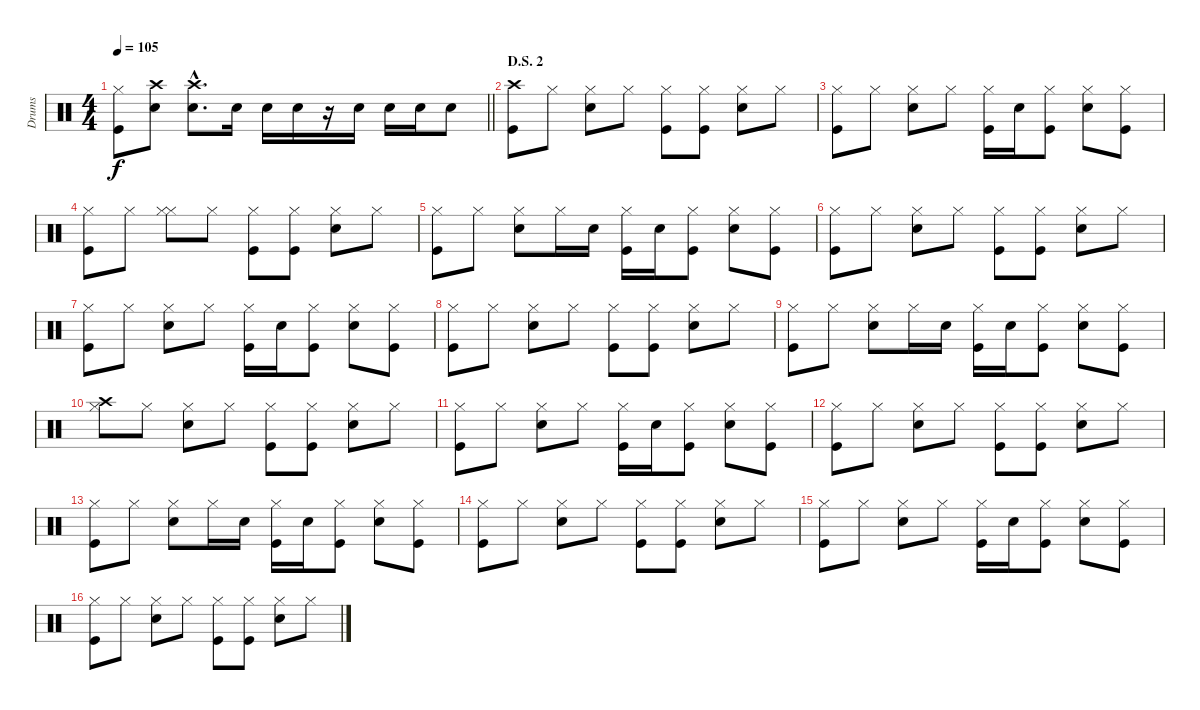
\track ("Drums" "Drums") {instrument percussion}
\staff {score}
\articulation defaults
\ts (4 4)
\tempo 105
\clef neutral
\barLineRight lightlight
\ks c
("Hi-Hat (closed)" "Kick (hit)").8{dy f} ("Crash high (hit)" "Electric Snare (hit)").8 ("Crash high (hit)"{hac} "Electric Snare (hit)"{hac}).8{d} "Electric Snare (hit)".16 "Electric Snare (hit)".16 "Electric Snare (hit)".16 r.16 "Electric Snare (hit)".16 "Electric Snare (hit)".16 "Electric Snare (hit)".16 "Electric Snare (hit)".8 |
\section ("" "D.S. 2")
("Crash high (hit)" "Kick (hit)").8 "Hi-Hat (closed)".8 ("Hi-Hat (closed)" "Electric Snare (hit)").8 "Hi-Hat (closed)".8 ("Hi-Hat (closed)" "Kick (hit)").8 ("Hi-Hat (closed)" "Kick (hit)").8 ("Hi-Hat (closed)" "Electric Snare (hit)").8 "Hi-Hat (closed)".8 |
("Hi-Hat (closed)" "Kick (hit)").8 "Hi-Hat (closed)".8 ("Hi-Hat (closed)" "Electric Snare (hit)").8 "Hi-Hat (closed)".8 ("Hi-Hat (closed)" "Kick (hit)").16 "Electric Snare (hit)".16 ("Hi-Hat (closed)" "Kick (hit)").8 ("Hi-Hat (closed)" "Electric Snare (hit)").8 ("Hi-Hat (closed)" "Kick (hit)").8 |
("Hi-Hat (closed)" "Kick (hit)").8 "Hi-Hat (closed)".8 ("Hi-Hat (closed)" "Hi-Hat (closed)").8 "Hi-Hat (closed)".8 ("Hi-Hat (closed)" "Kick (hit)").8 ("Hi-Hat (closed)" "Kick (hit)").8 ("Hi-Hat (closed)" "Electric Snare (hit)").8 "Hi-Hat (closed)".8 |
("Hi-Hat (closed)" "Kick (hit)").8 "Hi-Hat (closed)".8 ("Hi-Hat (closed)" "Electric Snare (hit)").8 "Hi-Hat (closed)".16 "Electric Snare (hit)".16 ("Hi-Hat (closed)" "Kick (hit)").16 "Electric Snare (hit)".16 ("Hi-Hat (closed)" "Kick (hit)").8 ("Hi-Hat (closed)" "Electric Snare (hit)").8 ("Hi-Hat (closed)" "Kick (hit)").8 |
("Hi-Hat (closed)" "Kick (hit)").8 "Hi-Hat (closed)".8 ("Hi-Hat (closed)" "Electric Snare (hit)").8 "Hi-Hat (closed)".8 ("Hi-Hat (closed)" "Kick (hit)").8 ("Hi-Hat (closed)" "Kick (hit)").8 ("Hi-Hat (closed)" "Electric Snare (hit)").8 "Hi-Hat (closed)".8 |
("Hi-Hat (closed)" "Kick (hit)").8 "Hi-Hat (closed)".8 ("Hi-Hat (closed)" "Electric Snare (hit)").8 "Hi-Hat (closed)".8 ("Hi-Hat (closed)" "Kick (hit)").16 "Electric Snare (hit)".16 ("Hi-Hat (closed)" "Kick (hit)").8 ("Hi-Hat (closed)" "Electric Snare (hit)").8 ("Hi-Hat (closed)" "Kick (hit)").8 |
("Hi-Hat (closed)" "Kick (hit)").8 "Hi-Hat (closed)".8 ("Hi-Hat (closed)" "Electric Snare (hit)").8 "Hi-Hat (closed)".8 ("Hi-Hat (closed)" "Kick (hit)").8 ("Hi-Hat (closed)" "Kick (hit)").8 ("Hi-Hat (closed)" "Electric Snare (hit)").8 "Hi-Hat (closed)".8 |
("Hi-Hat (closed)" "Kick (hit)").8 "Hi-Hat (closed)".8 ("Hi-Hat (closed)" "Electric Snare (hit)").8 "Hi-Hat (closed)".16 "Electric Snare (hit)".16 ("Hi-Hat (closed)" "Kick (hit)").16 "Electric Snare (hit)".16 ("Hi-Hat (closed)" "Kick (hit)").8 ("Hi-Hat (closed)" "Electric Snare (hit)").8 ("Hi-Hat (closed)" "Kick (hit)").8 |
("Crash high (hit)" "Hi-Hat (closed)").8 "Hi-Hat (closed)".8 ("Hi-Hat (closed)" "Electric Snare (hit)").8 "Hi-Hat (closed)".8 ("Hi-Hat (closed)" "Kick (hit)").8 ("Hi-Hat (closed)" "Kick (hit)").8 ("Hi-Hat (closed)" "Electric Snare (hit)").8 "Hi-Hat (closed)".8 |
("Hi-Hat (closed)" "Kick (hit)").8 "Hi-Hat (closed)".8 ("Hi-Hat (closed)" "Electric Snare (hit)").8 "Hi-Hat (closed)".8 ("Hi-Hat (closed)" "Kick (hit)").16 "Electric Snare (hit)".16 ("Hi-Hat (closed)" "Kick (hit)").8 ("Hi-Hat (closed)" "Electric Snare (hit)").8 ("Hi-Hat (closed)" "Kick (hit)").8 |
("Hi-Hat (closed)" "Kick (hit)").8 "Hi-Hat (closed)".8 ("Hi-Hat (closed)" "Electric Snare (hit)").8 "Hi-Hat (closed)".8 ("Hi-Hat (closed)" "Kick (hit)").8 ("Hi-Hat (closed)" "Kick (hit)").8 ("Hi-Hat (closed)" "Electric Snare (hit)").8 "Hi-Hat (closed)".8 |
("Hi-Hat (closed)" "Kick (hit)").8 "Hi-Hat (closed)".8 ("Hi-Hat (closed)" "Electric Snare (hit)").8 "Hi-Hat (closed)".16 "Electric Snare (hit)".16 ("Hi-Hat (closed)" "Kick (hit)").16 "Electric Snare (hit)".16 ("Hi-Hat (closed)" "Kick (hit)").8 ("Hi-Hat (closed)" "Electric Snare (hit)").8 ("Hi-Hat (closed)" "Kick (hit)").8 |
("Hi-Hat (closed)" "Kick (hit)").8 "Hi-Hat (closed)".8 ("Hi-Hat (closed)" "Electric Snare (hit)").8 "Hi-Hat (closed)".8 ("Hi-Hat (closed)" "Kick (hit)").8 ("Hi-Hat (closed)" "Kick (hit)").8 ("Hi-Hat (closed)" "Electric Snare (hit)").8 "Hi-Hat (closed)".8 |
("Hi-Hat (closed)" "Kick (hit)").8 "Hi-Hat (closed)".8 ("Hi-Hat (closed)" "Electric Snare (hit)").8 "Hi-Hat (closed)".8 ("Hi-Hat (closed)" "Kick (hit)").16 "Electric Snare (hit)".16 ("Hi-Hat (closed)" "Kick (hit)").8 ("Hi-Hat (closed)" "Electric Snare (hit)").8 ("Hi-Hat (closed)" "Kick (hit)").8 |
("Hi-Hat (closed)" "Kick (hit)").8 "Hi-Hat (closed)".8 ("Hi-Hat (closed)" "Electric Snare (hit)").8 "Hi-Hat (closed)".8 ("Hi-Hat (closed)" "Kick (hit)").8 ("Hi-Hat (closed)" "Kick (hit)").8 ("Hi-Hat (closed)" "Electric Snare (hit)").8 "Hi-Hat (closed)".8
